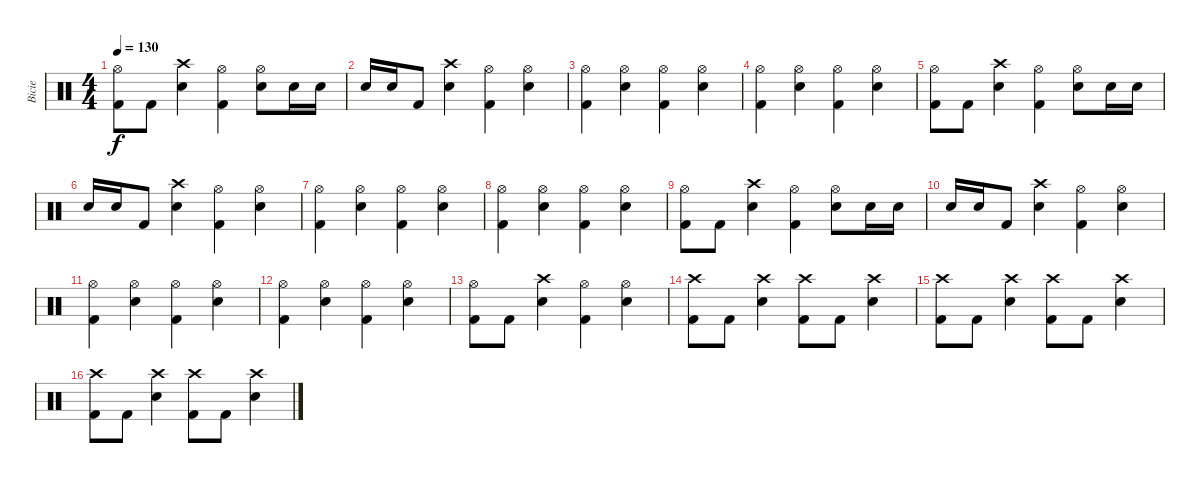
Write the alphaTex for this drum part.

\track ("Bicie" "Bicie") {instrument percussion}
\staff {score}
\articulation defaults
\ts (4 4)
\tempo 130
\clef neutral
\ks c
("Hi-Hat (open)" "Kick (hit) 2").8{dy f} "Kick (hit) 2".8 ("Crash high (hit)" "Snare (hit) 2").4 ("Hi-Hat (open)" "Kick (hit) 2").4 ("Hi-Hat (open)" "Snare (hit) 2").8 "Snare (hit) 2".16 "Snare (hit) 2".16 |
"Snare (hit) 2".16 "Snare (hit) 2".16 "Kick (hit) 2".8 ("Crash high (hit)" "Snare (hit) 2").4 ("Hi-Hat (open)" "Kick (hit) 2").4 ("Hi-Hat (open)" "Snare (hit) 2").4 |
("Hi-Hat (open)" "Kick (hit) 2").4 ("Hi-Hat (open)" "Snare (hit) 2").4 ("Hi-Hat (open)" "Kick (hit) 2").4 ("Hi-Hat (open)" "Snare (hit) 2").4 |
("Hi-Hat (open)" "Kick (hit) 2").4 ("Hi-Hat (open)" "Snare (hit) 2").4 ("Hi-Hat (open)" "Kick (hit) 2").4 ("Hi-Hat (open)" "Snare (hit) 2").4 |
("Hi-Hat (open)" "Kick (hit) 2").8 "Kick (hit) 2".8 ("Crash high (hit)" "Snare (hit) 2").4 ("Hi-Hat (open)" "Kick (hit) 2").4 ("Hi-Hat (open)" "Snare (hit) 2").8 "Snare (hit) 2".16 "Snare (hit) 2".16 |
"Snare (hit) 2".16 "Snare (hit) 2".16 "Kick (hit) 2".8 ("Crash high (hit)" "Snare (hit) 2").4 ("Hi-Hat (open)" "Kick (hit) 2").4 ("Hi-Hat (open)" "Snare (hit) 2").4 |
("Hi-Hat (open)" "Kick (hit) 2").4 ("Hi-Hat (open)" "Snare (hit) 2").4 ("Hi-Hat (open)" "Kick (hit) 2").4 ("Hi-Hat (open)" "Snare (hit) 2").4 |
("Hi-Hat (open)" "Kick (hit) 2").4 ("Hi-Hat (open)" "Snare (hit) 2").4 ("Hi-Hat (open)" "Kick (hit) 2").4 ("Hi-Hat (open)" "Snare (hit) 2").4 |
("Hi-Hat (open)" "Kick (hit) 2").8 "Kick (hit) 2".8 ("Crash high (hit)" "Snare (hit) 2").4 ("Hi-Hat (open)" "Kick (hit) 2").4 ("Hi-Hat (open)" "Snare (hit) 2").8 "Snare (hit) 2".16 "Snare (hit) 2".16 |
"Snare (hit) 2".16 "Snare (hit) 2".16 "Kick (hit) 2".8 ("Crash high (hit)" "Snare (hit) 2").4 ("Hi-Hat (open)" "Kick (hit) 2").4 ("Hi-Hat (open)" "Snare (hit) 2").4 |
("Hi-Hat (open)" "Kick (hit) 2").4 ("Hi-Hat (open)" "Snare (hit) 2").4 ("Hi-Hat (open)" "Kick (hit) 2").4 ("Hi-Hat (open)" "Snare (hit) 2").4 |
("Hi-Hat (open)" "Kick (hit) 2").4 ("Hi-Hat (open)" "Snare (hit) 2").4 ("Hi-Hat (open)" "Kick (hit) 2").4 ("Hi-Hat (open)" "Snare (hit) 2").4 |
("Hi-Hat (open)" "Kick (hit) 2").8 "Kick (hit) 2".8 ("Crash high (hit)" "Snare (hit) 2").4 ("Hi-Hat (open)" "Kick (hit) 2").4 ("Hi-Hat (open)" "Snare (hit) 2").4 |
("Crash high (hit)" "Kick (hit) 2").8 "Kick (hit) 2".8 ("Crash high (hit)" "Snare (hit) 2").4 ("Crash high (hit)" "Kick (hit) 2").8 "Kick (hit) 2".8 ("Crash high (hit)" "Snare (hit) 2").4 |
("Crash high (hit)" "Kick (hit) 2").8 "Kick (hit) 2".8 ("Crash high (hit)" "Snare (hit) 2").4 ("Crash high (hit)" "Kick (hit) 2").8 "Kick (hit) 2".8 ("Crash high (hit)" "Snare (hit) 2").4 |
("Crash high (hit)" "Kick (hit) 2").8 "Kick (hit) 2".8 ("Crash high (hit)" "Snare (hit) 2").4 ("Crash high (hit)" "Kick (hit) 2").8 "Kick (hit) 2".8 ("Crash high (hit)" "Snare (hit) 2").4
